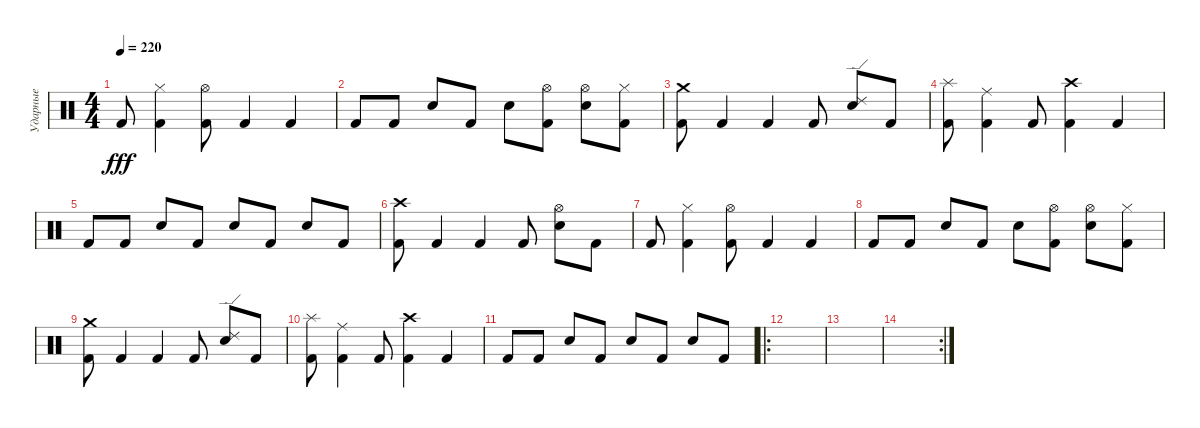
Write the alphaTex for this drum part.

\track ("Ударные" "Ударные") {instrument percussion}
\staff {score}
\articulation defaults
\ts (4 4)
\tempo 220
\clef neutral
\ks c "Kick (hit) 2".8{dy fff}
("Kick (hit) 2" "Hi-Hat (closed)").4 ("Kick (hit) 2" "Hi-Hat (open)").8 "Kick (hit) 2".4 "Kick (hit) 2".4 |
"Kick (hit) 2".8 "Kick (hit) 2".8 "Snare (hit) 2".8 "Kick (hit) 2".8 "Snare (hit) 2".8 ("Kick (hit) 2" "Hi-Hat (open)").8 ("Snare (hit) 2" "Hi-Hat (open)").8 ("Kick (hit) 2" "Hi-Hat (closed)").8 |
("Kick (hit) 2" "Crash medium (hit)").8 "Kick (hit) 2".4 "Kick (hit) 2".4 "Kick (hit) 2".8 ("Snare (hit) 2" "Ride (edge) 2").8 "Kick (hit) 2".8 |
("Kick (hit) 2" "Splash (hit)").8 ("Kick (hit) 2" "Ride (middle)").4 "Kick (hit) 2".8 ("Kick (hit) 2" "Crash high (hit)").4 "Kick (hit) 2".4 |
"Kick (hit) 2".8 "Kick (hit) 2".8 "Snare (hit) 2".8 "Kick (hit) 2".8 "Snare (hit) 2".8 "Kick (hit) 2".8 "Snare (hit) 2".8 "Kick (hit) 2".8 |
("Kick (hit) 2" "Crash high (hit)").8 "Kick (hit) 2".4 "Kick (hit) 2".4 "Kick (hit) 2".8 ("Snare (hit) 2" "Hi-Hat (open)").8 "Kick (hit) 2".8 |
"Kick (hit) 2".8 ("Kick (hit) 2" "Hi-Hat (closed)").4 ("Kick (hit) 2" "Hi-Hat (open)").8 "Kick (hit) 2".4 "Kick (hit) 2".4 |
"Kick (hit) 2".8 "Kick (hit) 2".8 "Snare (hit) 2".8 "Kick (hit) 2".8 "Snare (hit) 2".8 ("Kick (hit) 2" "Hi-Hat (open)").8 ("Snare (hit) 2" "Hi-Hat (open)").8 ("Kick (hit) 2" "Hi-Hat (closed)").8 |
("Kick (hit) 2" "Crash medium (hit)").8 "Kick (hit) 2".4 "Kick (hit) 2".4 "Kick (hit) 2".8 ("Snare (hit) 2" "Ride (edge) 2").8 "Kick (hit) 2".8 |
("Kick (hit) 2" "Splash (hit)").8 ("Kick (hit) 2" "Ride (middle)").4 "Kick (hit) 2".8 ("Kick (hit) 2" "Crash high (hit)").4 "Kick (hit) 2".4 |
"Kick (hit) 2".8 "Kick (hit) 2".8 "Snare (hit) 2".8 "Kick (hit) 2".8 "Snare (hit) 2".8 "Kick (hit) 2".8 "Snare (hit) 2".8 "Kick (hit) 2".8 |
\ro
|
|
\rc 2
